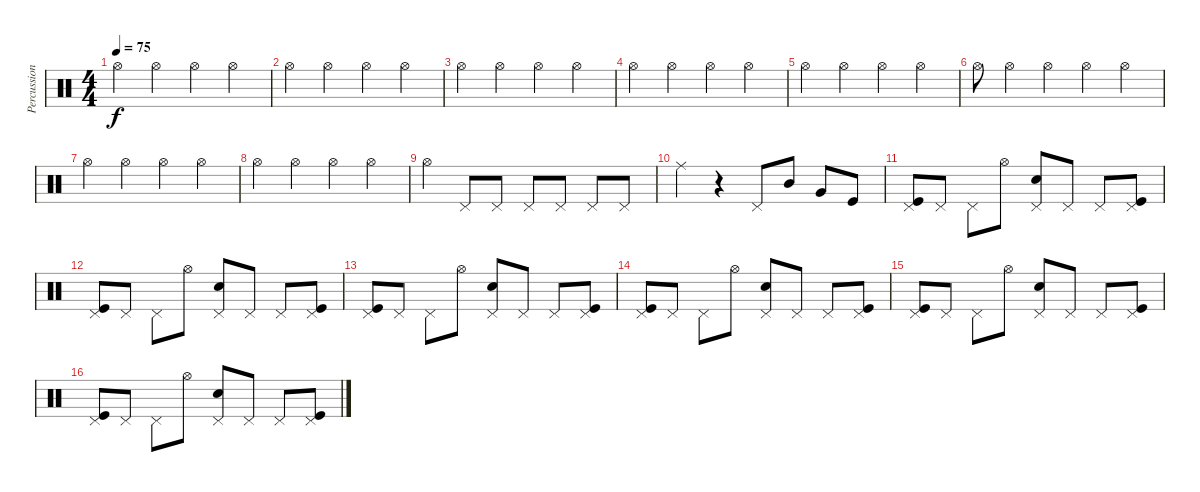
\track ("Percussion" "Percussion") {instrument percussion}
\staff {score}
\articulation defaults
\ts (4 4)
\tempo 75
\clef neutral
\ks c "Hi-Hat (open)".4{dy f} "Hi-Hat (open)".4 "Hi-Hat (open)".4 "Hi-Hat (open)".4
|
"Hi-Hat (open)".4 "Hi-Hat (open)".4 "Hi-Hat (open)".4 "Hi-Hat (open)".4 |
"Hi-Hat (open)".4 "Hi-Hat (open)".4 "Hi-Hat (open)".4 "Hi-Hat (open)".4 |
"Hi-Hat (open)".4 "Hi-Hat (open)".4 "Hi-Hat (open)".4 "Hi-Hat (open)".4 |
"Hi-Hat (open)".4 "Hi-Hat (open)".4 "Hi-Hat (open)".4 "Hi-Hat (open)".4 |
"Hi-Hat (open)".8 "Hi-Hat (open)".4 "Hi-Hat (open)".4 "Hi-Hat (open)".4 "Hi-Hat (open)".4 |
"Hi-Hat (open)".4 "Hi-Hat (open)".4 "Hi-Hat (open)".4 "Hi-Hat (open)".4 |
"Hi-Hat (open)".4 "Hi-Hat (open)".4 "Hi-Hat (open)".4 "Hi-Hat (open)".4 |
"Hi-Hat (open)".4 "Pedal Hi-Hat (hit)".8 "Pedal Hi-Hat (hit)".8 "Pedal Hi-Hat (hit)".8 "Pedal Hi-Hat (hit)".8 "Pedal Hi-Hat (hit)".8 "Pedal Hi-Hat (hit)".8 |
"Ride (middle)".4 r.4 "Pedal Hi-Hat (hit)".8 "Mid Tom (hit)".8 "Very Low Tom (hit)".8 "Kick (hit)".8 |
("Pedal Hi-Hat (hit)" "Kick (hit)").8 "Pedal Hi-Hat (hit)".8 "Pedal Hi-Hat (hit)".8 "Hi-Hat (open)".8 ("Snare (hit) 2" "Pedal Hi-Hat (hit)").8 "Pedal Hi-Hat (hit)".8 "Pedal Hi-Hat (hit)".8 ("Kick (hit)" "Pedal Hi-Hat (hit)").8 |
("Pedal Hi-Hat (hit)" "Kick (hit)").8 "Pedal Hi-Hat (hit)".8 "Pedal Hi-Hat (hit)".8 "Hi-Hat (open)".8 ("Snare (hit) 2" "Pedal Hi-Hat (hit)").8 "Pedal Hi-Hat (hit)".8 "Pedal Hi-Hat (hit)".8 ("Kick (hit)" "Pedal Hi-Hat (hit)").8 |
("Pedal Hi-Hat (hit)" "Kick (hit)").8 "Pedal Hi-Hat (hit)".8 "Pedal Hi-Hat (hit)".8 "Hi-Hat (open)".8 ("Snare (hit) 2" "Pedal Hi-Hat (hit)").8 "Pedal Hi-Hat (hit)".8 "Pedal Hi-Hat (hit)".8 ("Kick (hit)" "Pedal Hi-Hat (hit)").8 |
("Pedal Hi-Hat (hit)" "Kick (hit)").8 "Pedal Hi-Hat (hit)".8 "Pedal Hi-Hat (hit)".8 "Hi-Hat (open)".8 ("Snare (hit) 2" "Pedal Hi-Hat (hit)").8 "Pedal Hi-Hat (hit)".8 "Pedal Hi-Hat (hit)".8 ("Kick (hit)" "Pedal Hi-Hat (hit)").8 |
("Pedal Hi-Hat (hit)" "Kick (hit)").8 "Pedal Hi-Hat (hit)".8 "Pedal Hi-Hat (hit)".8 "Hi-Hat (open)".8 ("Snare (hit) 2" "Pedal Hi-Hat (hit)").8 "Pedal Hi-Hat (hit)".8 "Pedal Hi-Hat (hit)".8 ("Kick (hit)" "Pedal Hi-Hat (hit)").8 |
("Pedal Hi-Hat (hit)" "Kick (hit)").8 "Pedal Hi-Hat (hit)".8 "Pedal Hi-Hat (hit)".8 "Hi-Hat (open)".8 ("Snare (hit) 2" "Pedal Hi-Hat (hit)").8 "Pedal Hi-Hat (hit)".8 "Pedal Hi-Hat (hit)".8 ("Kick (hit)" "Pedal Hi-Hat (hit)").8
